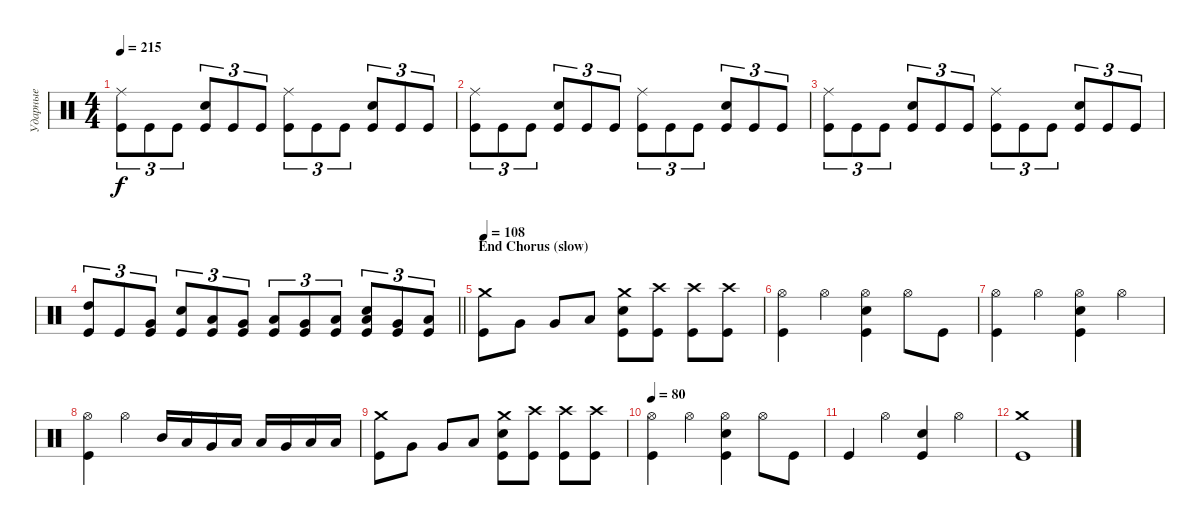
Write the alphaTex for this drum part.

\track ("Ударные" "Ударные") {instrument percussion}
\staff {score}
\articulation defaults
\ts (4 4)
\tempo 215
\clef neutral
\ks c
("Ride (middle)" "Kick (hit)").8{tu (3 2) dy f} "Kick (hit)".8{tu (3 2)} "Kick (hit)".8{tu (3 2)} ("Electric Snare (hit)" "Kick (hit)").8{tu (3 2)} "Kick (hit)".8{tu (3 2)} "Kick (hit)".8{tu (3 2)} ("Ride (middle)" "Kick (hit)").8{tu (3 2)} "Kick (hit)".8{tu (3 2)} "Kick (hit)".8{tu (3 2)} ("Electric Snare (hit)" "Kick (hit)").8{tu (3 2)} "Kick (hit)".8{tu (3 2)} "Kick (hit)".8{tu (3 2)} |
("Ride (middle)" "Kick (hit)").8{tu (3 2)} "Kick (hit)".8{tu (3 2)} "Kick (hit)".8{tu (3 2)} ("Electric Snare (hit)" "Kick (hit)").8{tu (3 2)} "Kick (hit)".8{tu (3 2)} "Kick (hit)".8{tu (3 2)} ("Ride (middle)" "Kick (hit)").8{tu (3 2)} "Kick (hit)".8{tu (3 2)} "Kick (hit)".8{tu (3 2)} ("Electric Snare (hit)" "Kick (hit)").8{tu (3 2)} "Kick (hit)".8{tu (3 2)} "Kick (hit)".8{tu (3 2)} |
("Ride (middle)" "Kick (hit)").8{tu (3 2)} "Kick (hit)".8{tu (3 2)} "Kick (hit)".8{tu (3 2)} ("Electric Snare (hit)" "Kick (hit)").8{tu (3 2)} "Kick (hit)".8{tu (3 2)} "Kick (hit)".8{tu (3 2)} ("Ride (middle)" "Kick (hit)").8{tu (3 2)} "Kick (hit)".8{tu (3 2)} "Kick (hit)".8{tu (3 2)} ("Electric Snare (hit)" "Kick (hit)").8{tu (3 2)} "Kick (hit)".8{tu (3 2)} "Kick (hit)".8{tu (3 2)} |
\barLineRight lightlight
("High Tom (hit)" "Kick (hit)").8{tu (3 2)} "Kick (hit)".8{tu (3 2)} ("Very Low Tom (hit)" "Kick (hit)").8{tu (3 2)} ("Electric Snare (hit)" "Kick (hit)").8{tu (3 2)} ("Low Tom (hit)" "Kick (hit)").8{tu (3 2)} ("Very Low Tom (hit)" "Kick (hit)").8{tu (3 2)} ("Low Tom (hit)" "Kick (hit)").8{tu (3 2)} ("Very Low Tom (hit)" "Kick (hit)").8{tu (3 2)} ("Low Floor Tom (hit)" "Kick (hit)").8{tu (3 2)} ("Low Tom (hit)" "Electric Snare (hit)" "Kick (hit)").8{tu (3 2)} ("Very Low Tom (hit)" "Kick (hit)").8{tu (3 2)} ("Low Floor Tom (hit)" "Kick (hit)").8{tu (3 2)} |
\section ("" "End Chorus (slow)")
\tempo 108
("Crash medium (hit)" "Kick (hit)").8 "Very Low Tom (hit)".8 "Very Low Tom (hit)".8 "Low Floor Tom (hit)".8 ("Crash medium (hit)" "Electric Snare (hit)" "Kick (hit)").8 ("Crash high (hit)" "Kick (hit)").8 ("Crash high (hit)" "Kick (hit)").8 ("Crash high (hit)" "Kick (hit)").8 |
("Hi-Hat (open)" "Kick (hit)").4 "Hi-Hat (open)".4 ("Hi-Hat (open)" "Kick (hit)" "Electric Snare (hit)").4 "Hi-Hat (open)".8 "Kick (hit)".8 |
("Hi-Hat (open)" "Kick (hit)").4 "Hi-Hat (open)".4 ("Hi-Hat (open)" "Kick (hit)" "Electric Snare (hit)").4 "Hi-Hat (open)".4 |
("Hi-Hat (open)" "Kick (hit)").4 "Hi-Hat (open)".4 "Mid Tom (hit)".16 "Low Tom (hit)".16 "Very Low Tom (hit)".16 "Low Floor Tom (hit)".16 "Low Tom (hit)".16 "Very Low Tom (hit)".16 "Low Floor Tom (hit)".16 "Low Floor Tom (hit)".16 |
("Crash medium (hit)" "Kick (hit)").8 "Very Low Tom (hit)".8 "Very Low Tom (hit)".8 "Low Floor Tom (hit)".8 ("Crash medium (hit)" "Electric Snare (hit)" "Kick (hit)").8 ("Crash high (hit)" "Kick (hit)").8 ("Crash high (hit)" "Kick (hit)").8 ("Crash high (hit)" "Kick (hit)").8 |
\tempo 80
("Hi-Hat (open)" "Kick (hit)").4 "Hi-Hat (open)".4 ("Hi-Hat (open)" "Kick (hit)" "Electric Snare (hit)").4 "Hi-Hat (open)".8 "Kick (hit)".8 |
"Kick (hit)".4 "Hi-Hat (open)".4 ("Electric Snare (hit)" "Kick (hit)").4 "Hi-Hat (open)".4 |
("Crash medium (hit)" "Kick (hit)").1
